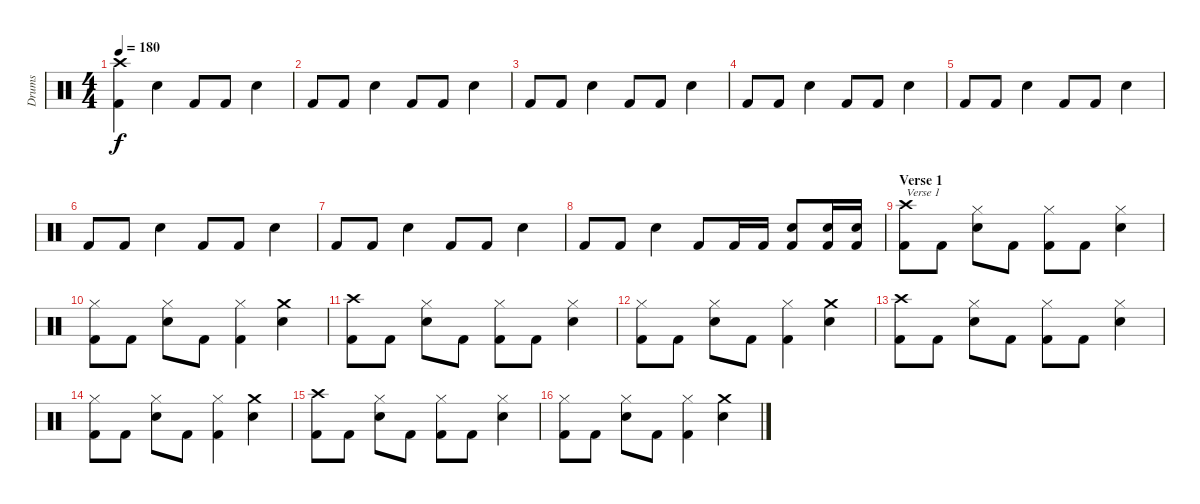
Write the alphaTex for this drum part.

\track ("Drums" "Drums") {instrument percussion}
\staff {score}
\articulation defaults
\ts (4 4)
\tempo 180
\clef neutral
\ks c
("Crash high (hit)" "Kick (hit) 2").4{dy f} "Snare (hit) 2".4 "Kick (hit) 2".8 "Kick (hit) 2".8 "Snare (hit) 2".4 |
"Kick (hit) 2".8 "Kick (hit) 2".8 "Snare (hit) 2".4 "Kick (hit) 2".8 "Kick (hit) 2".8 "Snare (hit) 2".4 |
"Kick (hit) 2".8 "Kick (hit) 2".8 "Snare (hit) 2".4 "Kick (hit) 2".8 "Kick (hit) 2".8 "Snare (hit) 2".4 |
"Kick (hit) 2".8 "Kick (hit) 2".8 "Snare (hit) 2".4 "Kick (hit) 2".8 "Kick (hit) 2".8 "Snare (hit) 2".4 |
"Kick (hit) 2".8 "Kick (hit) 2".8 "Snare (hit) 2".4 "Kick (hit) 2".8 "Kick (hit) 2".8 "Snare (hit) 2".4 |
"Kick (hit) 2".8 "Kick (hit) 2".8 "Snare (hit) 2".4 "Kick (hit) 2".8 "Kick (hit) 2".8 "Snare (hit) 2".4 |
"Kick (hit) 2".8 "Kick (hit) 2".8 "Snare (hit) 2".4 "Kick (hit) 2".8 "Kick (hit) 2".8 "Snare (hit) 2".4 |
"Kick (hit) 2".8 "Kick (hit) 2".8 "Snare (hit) 2".4 "Kick (hit) 2".8 "Kick (hit) 2".16 "Kick (hit) 2".16 ("Snare (hit) 2" "Kick (hit) 2").8 ("Snare (hit) 2" "Kick (hit) 2").16 ("Snare (hit) 2" "Kick (hit) 2").16 |
\section ("" "Verse 1")
("Crash high (hit)" "Kick (hit) 2").8{txt "Verse 1"} "Kick (hit) 2".8 ("Hi-Hat (closed)" "Snare (hit) 2").8 "Kick (hit) 2".8 ("Hi-Hat (closed)" "Kick (hit) 2").8 "Kick (hit) 2".8 ("Hi-Hat (closed)" "Snare (hit) 2").4 |
("Hi-Hat (closed)" "Kick (hit) 2").8 "Kick (hit) 2".8 ("Hi-Hat (closed)" "Snare (hit) 2").8 "Kick (hit) 2".8 ("Hi-Hat (closed)" "Kick (hit) 2").4 ("Crash medium (hit)" "Snare (hit) 2").4 |
("Crash high (hit)" "Kick (hit) 2").8 "Kick (hit) 2".8 ("Hi-Hat (closed)" "Snare (hit) 2").8 "Kick (hit) 2".8 ("Hi-Hat (closed)" "Kick (hit) 2").8 "Kick (hit) 2".8 ("Hi-Hat (closed)" "Snare (hit) 2").4 |
("Hi-Hat (closed)" "Kick (hit) 2").8 "Kick (hit) 2".8 ("Hi-Hat (closed)" "Snare (hit) 2").8 "Kick (hit) 2".8 ("Hi-Hat (closed)" "Kick (hit) 2").4 ("Crash medium (hit)" "Snare (hit) 2").4 |
("Crash high (hit)" "Kick (hit) 2").8 "Kick (hit) 2".8 ("Hi-Hat (closed)" "Snare (hit) 2").8 "Kick (hit) 2".8 ("Hi-Hat (closed)" "Kick (hit) 2").8 "Kick (hit) 2".8 ("Hi-Hat (closed)" "Snare (hit) 2").4 |
("Hi-Hat (closed)" "Kick (hit) 2").8 "Kick (hit) 2".8 ("Hi-Hat (closed)" "Snare (hit) 2").8 "Kick (hit) 2".8 ("Hi-Hat (closed)" "Kick (hit) 2").4 ("Crash medium (hit)" "Snare (hit) 2").4 |
("Crash high (hit)" "Kick (hit) 2").8 "Kick (hit) 2".8 ("Hi-Hat (closed)" "Snare (hit) 2").8 "Kick (hit) 2".8 ("Hi-Hat (closed)" "Kick (hit) 2").8 "Kick (hit) 2".8 ("Hi-Hat (closed)" "Snare (hit) 2").4 |
("Hi-Hat (closed)" "Kick (hit) 2").8 "Kick (hit) 2".8 ("Hi-Hat (closed)" "Snare (hit) 2").8 "Kick (hit) 2".8 ("Hi-Hat (closed)" "Kick (hit) 2").4 ("Crash medium (hit)" "Snare (hit) 2").4
